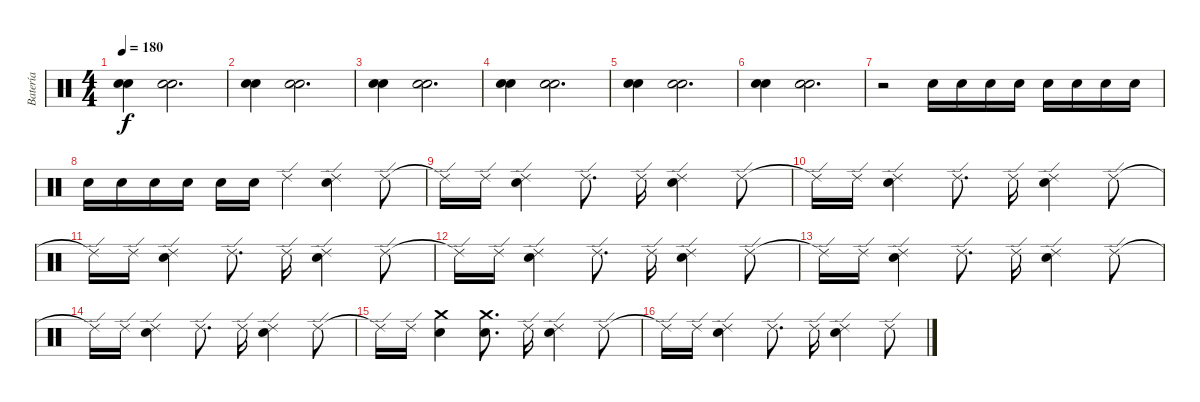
\track ("Batería" "Batería") {instrument percussion}
\staff {score}
\articulation defaults
\ts (4 4)
\tempo 180
\clef neutral
\ks c
("Snare (hit) 2" "Snare (hit) 2").4{dy f} ("Snare (hit) 2" "Snare (hit) 2").2{d} |
("Snare (hit) 2" "Snare (hit) 2").4 ("Snare (hit) 2" "Snare (hit) 2").2{d} |
("Snare (hit) 2" "Snare (hit) 2").4 ("Snare (hit) 2" "Snare (hit) 2").2{d} |
("Snare (hit) 2" "Snare (hit) 2").4 ("Snare (hit) 2" "Snare (hit) 2").2{d} |
("Snare (hit) 2" "Snare (hit) 2").4 ("Snare (hit) 2" "Snare (hit) 2").2{d} |
("Snare (hit) 2" "Snare (hit) 2").4 ("Snare (hit) 2" "Snare (hit) 2").2{d} |
r.2 "Snare (hit) 2".16 "Snare (hit) 2".16 "Snare (hit) 2".16 "Snare (hit) 2".16 "Snare (hit) 2".16 "Snare (hit) 2".16 "Snare (hit) 2".16 "Snare (hit) 2".16 |
"Snare (hit) 2".16 "Snare (hit) 2".16 "Snare (hit) 2".16 "Snare (hit) 2".16 "Snare (hit) 2".16 "Snare (hit) 2".16 "Ride (edge) 2".4 ("Ride (edge) 2" "Snare (hit) 2").4 "Ride (edge) 2".8 |
"Ride (edge) 2"{t}.16 "Ride (edge) 2".16 ("Ride (edge) 2" "Snare (hit) 2").4 "Ride (edge) 2".8{d} "Ride (edge) 2".16 ("Ride (edge) 2" "Snare (hit) 2").4 "Ride (edge) 2".8 |
"Ride (edge) 2"{t}.16 "Ride (edge) 2".16 ("Ride (edge) 2" "Snare (hit) 2").4 "Ride (edge) 2".8{d} "Ride (edge) 2".16 ("Ride (edge) 2" "Snare (hit) 2").4 "Ride (edge) 2".8 |
"Ride (edge) 2"{t}.16 "Ride (edge) 2".16 ("Ride (edge) 2" "Snare (hit) 2").4 "Ride (edge) 2".8{d} "Ride (edge) 2".16 ("Ride (edge) 2" "Snare (hit) 2").4 "Ride (edge) 2".8 |
"Ride (edge) 2"{t}.16 "Ride (edge) 2".16 ("Ride (edge) 2" "Snare (hit) 2").4 "Ride (edge) 2".8{d} "Ride (edge) 2".16 ("Ride (edge) 2" "Snare (hit) 2").4 "Ride (edge) 2".8 |
"Ride (edge) 2"{t}.16 "Ride (edge) 2".16 ("Ride (edge) 2" "Snare (hit) 2").4 "Ride (edge) 2".8{d} "Ride (edge) 2".16 ("Ride (edge) 2" "Snare (hit) 2").4 "Ride (edge) 2".8 |
"Ride (edge) 2"{t}.16 "Ride (edge) 2".16 ("Ride (edge) 2" "Snare (hit) 2").4 "Ride (edge) 2".8{d} "Ride (edge) 2".16 ("Ride (edge) 2" "Snare (hit) 2").4 "Ride (edge) 2".8 |
"Ride (edge) 2"{t}.16 "Ride (edge) 2".16 ("Crash medium (hit)" "Snare (hit) 2").4 ("Crash medium (hit)" "Snare (hit) 2").8{d} "Ride (edge) 2".16 ("Ride (edge) 2" "Snare (hit) 2").4 "Ride (edge) 2".8 |
"Ride (edge) 2"{t}.16 "Ride (edge) 2".16 ("Ride (edge) 2" "Snare (hit) 2").4 "Ride (edge) 2".8{d} "Ride (edge) 2".16 ("Ride (edge) 2" "Snare (hit) 2").4 "Ride (edge) 2".8
